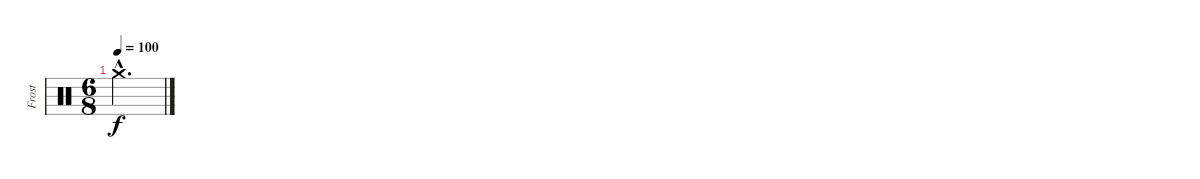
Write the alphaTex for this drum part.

\track ("Frost" "Frost") {instrument percussion}
\staff {score}
\articulation defaults
\ts (6 8)
\tempo 100
\clef neutral
\ks c "Crash medium (hit)"{hac}.2{d dy f}
